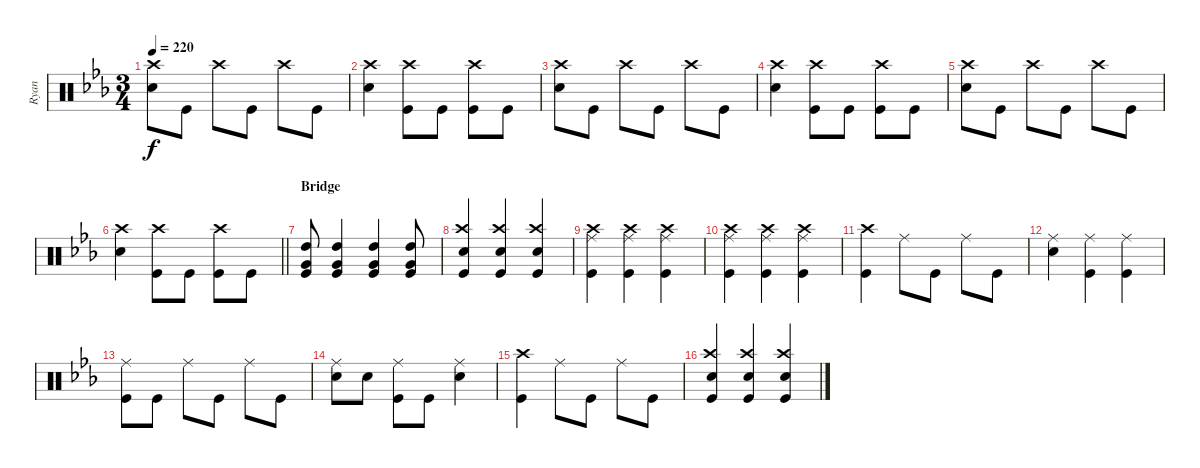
\track ("Ryan" "Ryan") {instrument percussion}
\staff {score}
\articulation defaults
\ts (3 4)
\tempo 220
\clef neutral
\ks cminor
("Snare (hit) 2" "Crash high (hit)").8{dy f} "Kick (hit)".8 "Crash high (hit)".8 "Kick (hit)".8 "Crash high (hit)".8 "Kick (hit)".8 |
("Crash high (hit)" "Snare (hit) 2").4 ("Crash high (hit)" "Kick (hit)").8 "Kick (hit)".8 ("Kick (hit)" "Crash high (hit)").8 "Kick (hit)".8 |
("Snare (hit) 2" "Crash high (hit)").8 "Kick (hit)".8 "Crash high (hit)".8 "Kick (hit)".8 "Crash high (hit)".8 "Kick (hit)".8 |
("Crash high (hit)" "Snare (hit) 2").4 ("Crash high (hit)" "Kick (hit)").8 "Kick (hit)".8 ("Kick (hit)" "Crash high (hit)").8 "Kick (hit)".8 |
("Snare (hit) 2" "Crash high (hit)").8 "Kick (hit)".8 "Crash high (hit)".8 "Kick (hit)".8 "Crash high (hit)".8 "Kick (hit)".8 |
\barLineRight lightlight
("Crash high (hit)" "Snare (hit) 2").4 ("Crash high (hit)" "Kick (hit)").8 "Kick (hit)".8 ("Kick (hit)" "Crash high (hit)").8 "Kick (hit)".8 |
\section ("" "Bridge")
("Kick (hit)" "Very Low Tom (hit)" "High Tom (hit)").8 ("High Tom (hit)" "Very Low Tom (hit)" "Kick (hit)").4 ("Very Low Tom (hit)" "Kick (hit)" "High Tom (hit)").4 ("Kick (hit)" "Very Low Tom (hit)" "High Tom (hit)").8 |
("Kick (hit)" "Snare (hit) 2" "Crash high (hit)").4 ("Kick (hit)" "Snare (hit) 2" "Crash high (hit)").4 ("Crash high (hit)" "Snare (hit) 2" "Kick (hit)").4 |
("Kick (hit)" "Crash high (hit)" "Ride (middle)").4 ("Ride (middle)" "Crash high (hit)" "Kick (hit)").4 ("Crash high (hit)" "Kick (hit)" "Ride (middle)").4 |
("Crash high (hit)" "Ride (middle)" "Kick (hit)").4 ("Kick (hit)" "Crash high (hit)" "Ride (middle)").4 ("Kick (hit)" "Crash high (hit)" "Ride (middle)").4 |
("Crash high (hit)" "Kick (hit)").4 "Ride (middle)".8 "Kick (hit)".8 "Ride (middle)".8 "Kick (hit)".8 |
("Ride (middle)" "Snare (hit) 2").4 ("Kick (hit)" "Ride (middle)").4 ("Kick (hit)" "Ride (middle)").4 |
("Ride (middle)" "Kick (hit)").8 "Kick (hit)".8 "Ride (middle)".8 "Kick (hit)".8 "Ride (middle)".8 "Kick (hit)".8 |
("Snare (hit) 2" "Ride (middle)").8 "Snare (hit) 2".8 ("Kick (hit)" "Ride (middle)").8 "Kick (hit)".8 ("Snare (hit) 2" "Ride (middle)").4 |
("Crash high (hit)" "Kick (hit)").4 "Ride (middle)".8 "Kick (hit)".8 "Ride (middle)".8 "Kick (hit)".8 |
("Kick (hit)" "Snare (hit) 2" "Crash high (hit)").4 ("Kick (hit)" "Snare (hit) 2" "Crash high (hit)").4 ("Crash high (hit)" "Snare (hit) 2" "Kick (hit)").4
